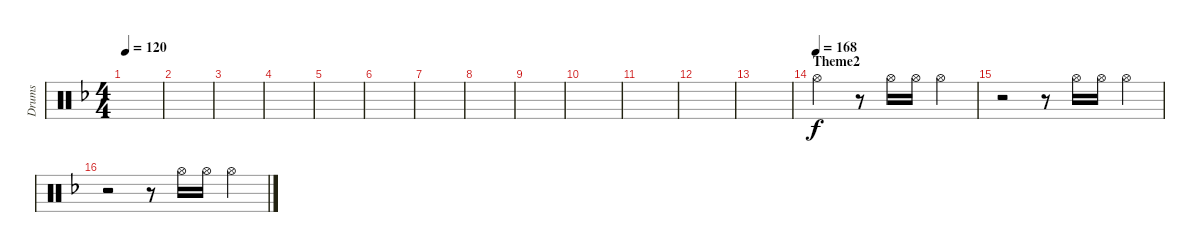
\track ("Drums" "Drums") {instrument percussion}
\staff {score}
\articulation defaults
\ts (4 4)
\tempo 120
\clef neutral
\ks f
|
|
|
|
|
|
|
|
|
|
|
|
|
\section ("" "Theme2")
\tempo (168)
"Hi-Hat (open)".2 r.8 "Hi-Hat (open)".16 "Hi-Hat (open)".16 "Hi-Hat (open)".4 |
r.2 r.8 "Hi-Hat (open)".16 "Hi-Hat (open)".16 "Hi-Hat (open)".4 |
r.2 r.8 "Hi-Hat (open)".16 "Hi-Hat (open)".16 "Hi-Hat (open)".4
